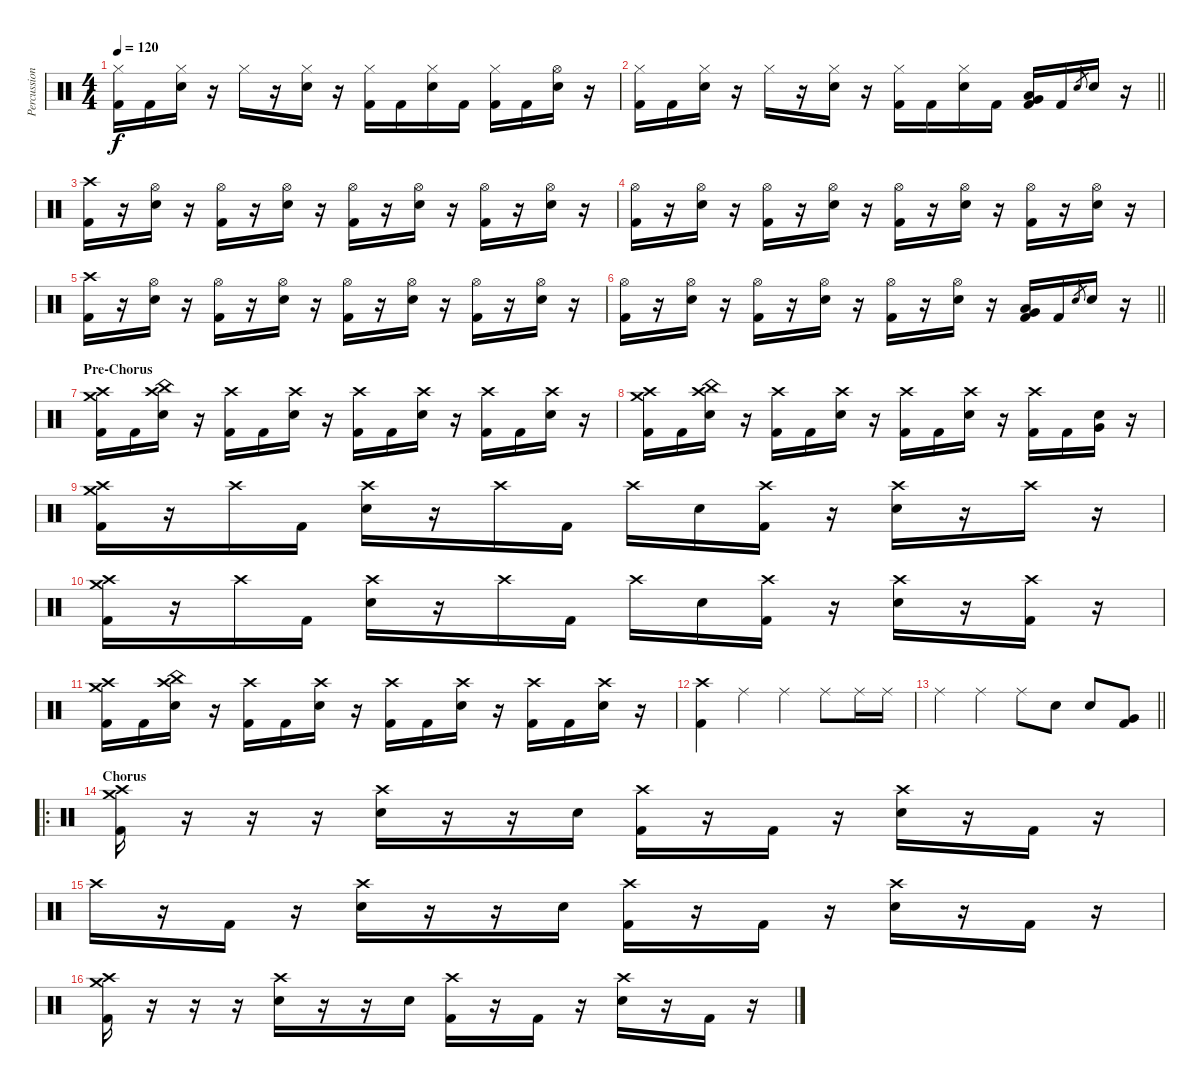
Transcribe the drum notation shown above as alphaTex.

\track ("Percussion" "Percussion") {instrument percussion}
\staff {score}
\articulation defaults
\ts (4 4)
\tempo 120
\clef neutral
\ks c
("Hi-Hat (closed)" "Kick (hit) 2").16{dy f} "Kick (hit) 2".16 ("Hi-Hat (closed)" "Electric Snare (hit)").16 r.16 "Hi-Hat (closed)".16 r.16 ("Hi-Hat (closed)" "Electric Snare (hit)").16 r.16 ("Hi-Hat (closed)" "Kick (hit) 2").16 "Kick (hit) 2".16 ("Hi-Hat (closed)" "Electric Snare (hit)").16 "Kick (hit) 2".16 ("Hi-Hat (closed)" "Kick (hit) 2").16 "Kick (hit) 2".16 ("Hi-Hat (open)" "Electric Snare (hit)").16 r.16 |
\barLineRight lightlight
("Hi-Hat (closed)" "Kick (hit) 2").16 "Kick (hit) 2".16 ("Hi-Hat (closed)" "Electric Snare (hit)").16 r.16 "Hi-Hat (closed)".16 r.16 ("Hi-Hat (closed)" "Electric Snare (hit)").16 r.16 ("Hi-Hat (closed)" "Kick (hit) 2").16 "Kick (hit) 2".16 ("Hi-Hat (closed)" "Electric Snare (hit)").16 "Kick (hit) 2".16 ("Very Low Tom (hit)" "Low Floor Tom (hit)" "Kick (hit) 2").16 "Kick (hit) 2".16 "Electric Snare (hit)".8{gr} "Electric Snare (hit)".16 r.16 |
("Crash high (hit)" "Kick (hit) 2").16 r.16 ("Hi-Hat (open)" "Electric Snare (hit)").16 r.16 ("Hi-Hat (open)" "Kick (hit) 2").16 r.16 ("Hi-Hat (open)" "Electric Snare (hit)").16 r.16 ("Hi-Hat (open)" "Kick (hit) 2").16 r.16 ("Hi-Hat (open)" "Electric Snare (hit)").16 r.16 ("Hi-Hat (open)" "Kick (hit) 2").16 r.16 ("Hi-Hat (open)" "Electric Snare (hit)").16 r.16 |
("Hi-Hat (open)" "Kick (hit) 2").16 r.16 ("Hi-Hat (open)" "Electric Snare (hit)").16 r.16 ("Hi-Hat (open)" "Kick (hit) 2").16 r.16 ("Hi-Hat (open)" "Electric Snare (hit)").16 r.16 ("Hi-Hat (open)" "Kick (hit) 2").16 r.16 ("Hi-Hat (open)" "Electric Snare (hit)").16 r.16 ("Hi-Hat (open)" "Kick (hit) 2").16 r.16 ("Hi-Hat (open)" "Electric Snare (hit)").16 r.16 |
("Crash high (hit)" "Kick (hit) 2").16 r.16 ("Hi-Hat (open)" "Electric Snare (hit)").16 r.16 ("Hi-Hat (open)" "Kick (hit) 2").16 r.16 ("Hi-Hat (open)" "Electric Snare (hit)").16 r.16 ("Hi-Hat (open)" "Kick (hit) 2").16 r.16 ("Hi-Hat (open)" "Electric Snare (hit)").16 r.16 ("Hi-Hat (open)" "Kick (hit) 2").16 r.16 ("Hi-Hat (open)" "Electric Snare (hit)").16 r.16 |
\barLineRight lightlight
("Hi-Hat (open)" "Kick (hit) 2").16 r.16 ("Hi-Hat (open)" "Electric Snare (hit)").16 r.16 ("Hi-Hat (open)" "Kick (hit) 2").16 r.16 ("Hi-Hat (open)" "Electric Snare (hit)").16 r.16 ("Hi-Hat (open)" "Kick (hit) 2").16 r.16 ("Hi-Hat (open)" "Electric Snare (hit)").16 r.16 ("Very Low Tom (hit)" "Low Floor Tom (hit)" "Kick (hit) 2").16 "Kick (hit) 2".16 "Electric Snare (hit)".8{gr} "Electric Snare (hit)".16 r.16 |
\section ("" "Pre-Chorus")
("Crash medium (hit)" "Crash high (hit)" "Kick (hit) 2").16 "Kick (hit) 2".16 ("China (hit)" "Crash high (hit)" "Electric Snare (hit)").16 r.16 ("Crash high (hit)" "Kick (hit) 2").16 "Kick (hit) 2".16 ("Crash high (hit)" "Electric Snare (hit)").16 r.16 ("Crash high (hit)" "Kick (hit) 2").16 "Kick (hit) 2".16 ("Crash high (hit)" "Electric Snare (hit)").16 r.16 ("Crash high (hit)" "Kick (hit) 2").16 "Kick (hit) 2".16 ("Crash high (hit)" "Electric Snare (hit)").16 r.16 |
("Crash medium (hit)" "Crash high (hit)" "Kick (hit) 2").16 "Kick (hit) 2".16 ("China (hit)" "Crash high (hit)" "Electric Snare (hit)").16 r.16 ("Crash high (hit)" "Kick (hit) 2").16 "Kick (hit) 2".16 ("Crash high (hit)" "Electric Snare (hit)").16 r.16 ("Crash high (hit)" "Kick (hit) 2").16 "Kick (hit) 2".16 ("Crash high (hit)" "Electric Snare (hit)").16 r.16 ("Crash high (hit)" "Kick (hit) 2").16 "Kick (hit) 2".16 ("Electric Snare (hit)" "Very Low Tom (hit)").16 r.16 |
("Crash medium (hit)" "Crash high (hit)" "Kick (hit) 2").16 r.16 "Crash high (hit)".16 "Kick (hit) 2".16 ("Crash high (hit)" "Electric Snare (hit)").16 r.16 "Crash high (hit)".16 "Kick (hit) 2".16 "Crash high (hit)".16 "Electric Snare (hit)".16 ("Crash high (hit)" "Kick (hit) 2").16 r.16 ("Crash high (hit)" "Electric Snare (hit)").16 r.16 "Crash high (hit)".16 r.16 |
("Crash medium (hit)" "Crash high (hit)" "Kick (hit) 2").16 r.16 "Crash high (hit)".16 "Kick (hit) 2".16 ("Crash high (hit)" "Electric Snare (hit)").16 r.16 "Crash high (hit)".16 "Kick (hit) 2".16 "Crash high (hit)".16 "Electric Snare (hit)".16 ("Crash high (hit)" "Kick (hit) 2").16 r.16 ("Crash high (hit)" "Electric Snare (hit)").16 r.16 ("Crash high (hit)" "Kick (hit) 2").16 r.16 |
("Crash medium (hit)" "Crash high (hit)" "Kick (hit) 2").16 "Kick (hit) 2".16 ("China (hit)" "Crash high (hit)" "Electric Snare (hit)").16 r.16 ("Crash high (hit)" "Kick (hit) 2").16 "Kick (hit) 2".16 ("Crash high (hit)" "Electric Snare (hit)").16 r.16 ("Crash high (hit)" "Kick (hit) 2").16 "Kick (hit) 2".16 ("Crash high (hit)" "Electric Snare (hit)").16 r.16 ("Crash high (hit)" "Kick (hit) 2").16 "Kick (hit) 2".16 ("Crash high (hit)" "Electric Snare (hit)").16 r.16 |
("Crash high (hit)" "Kick (hit) 2").4 "Ride (middle)".4 "Ride (middle)".4 "Ride (middle)".8 "Ride (middle)".16 "Ride (middle)".16 |
\barLineRight lightlight "Ride (middle)".4 "Ride (middle)".4 "Ride (middle)".8 "Electric Snare (hit)".8 "Electric Snare (hit)".8
("Very Low Tom (hit)" "Kick (hit) 2").8 |
\ro
\section ("" "Chorus")
("Crash medium (hit)" "Crash high (hit)" "Kick (hit) 2").16 r.16 r.16 r.16 ("Crash high (hit)" "Electric Snare (hit)").16 r.16 r.16 "Electric Snare (hit)".16 ("Crash high (hit)" "Kick (hit) 2").16 r.16 "Kick (hit) 2".16 r.16 ("Crash high (hit)" "Electric Snare (hit)").16 r.16 "Kick (hit) 2".16 r.16 |
"Crash high (hit)".16 r.16 "Kick (hit) 2".16 r.16 ("Crash high (hit)" "Electric Snare (hit)").16 r.16 r.16 "Electric Snare (hit)".16 ("Crash high (hit)" "Kick (hit) 2").16 r.16 "Kick (hit) 2".16 r.16 ("Crash high (hit)" "Electric Snare (hit)").16 r.16 "Kick (hit) 2".16 r.16 |
("Crash medium (hit)" "Crash high (hit)" "Kick (hit) 2").16 r.16 r.16 r.16 ("Crash high (hit)" "Electric Snare (hit)").16 r.16 r.16 "Electric Snare (hit)".16 ("Crash high (hit)" "Kick (hit) 2").16 r.16 "Kick (hit) 2".16 r.16 ("Crash high (hit)" "Electric Snare (hit)").16 r.16 "Kick (hit) 2".16 r.16
